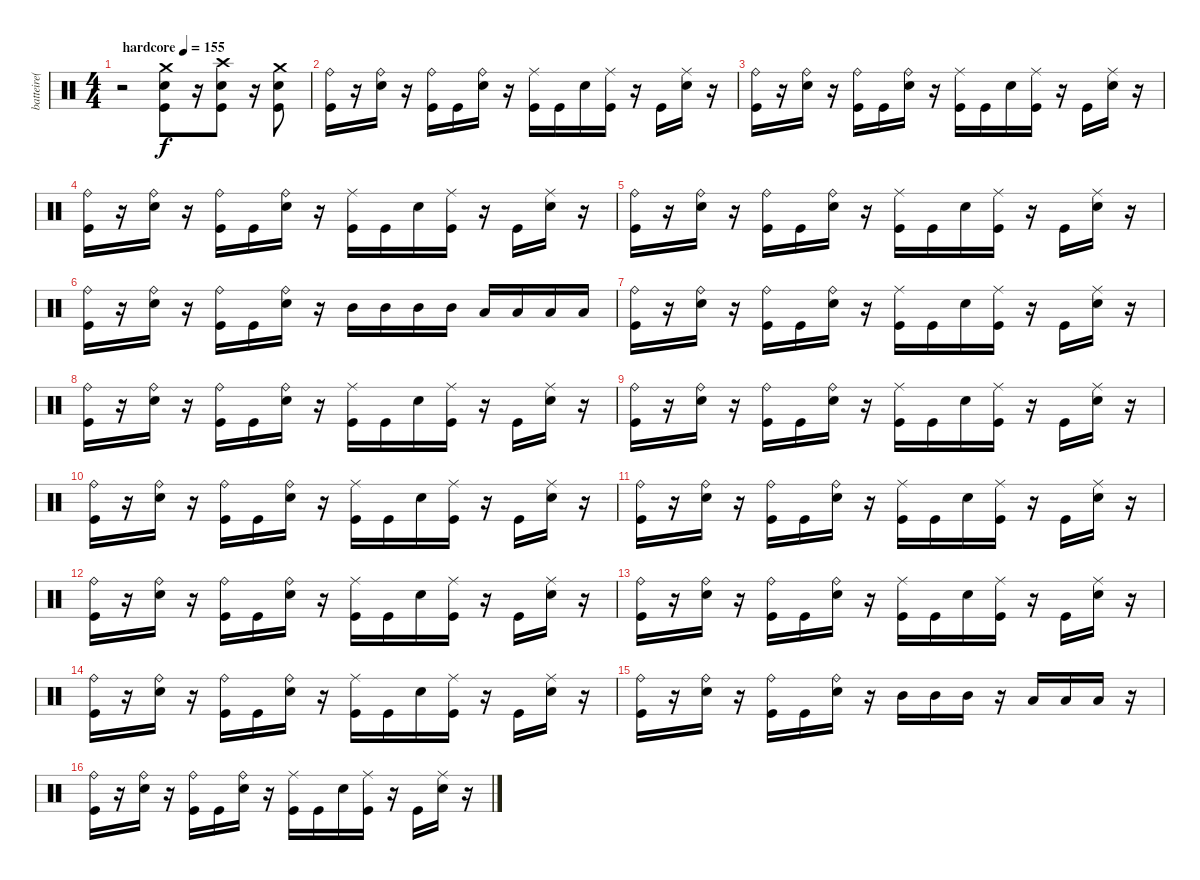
\track ("batteire( Rob ) " "batteire( ") {instrument percussion}
\staff {score}
\articulation defaults
\ts (4 4)
\tempo (155 "hardcore")
\clef neutral
\ks c
r.2{dy f} ("Crash medium (hit)" "Snare (hit) 2" "Kick (hit)").8 r.16 ("Crash high (hit)" "Snare (hit) 2" "Kick (hit)").8 r.16 ("Crash medium (hit)" "Snare (hit) 2" "Kick (hit)").8 |
("Ride (bell)" "Kick (hit)").16 r.16 ("Ride (bell)" "Snare (hit) 2").16 r.16 ("Ride (bell)" "Kick (hit)").16 "Kick (hit)".16 ("Ride (bell)" "Snare (hit) 2").16 r.16 ("Ride (middle)" "Kick (hit)").16 "Kick (hit)".16 "Snare (hit) 2".16 ("Ride (middle)" "Kick (hit)").16 r.16 "Kick (hit)".16 ("Ride (middle)" "Snare (hit) 2").16 r.16 |
("Ride (bell)" "Kick (hit)").16 r.16 ("Ride (bell)" "Snare (hit) 2").16 r.16 ("Ride (bell)" "Kick (hit)").16 "Kick (hit)".16 ("Ride (bell)" "Snare (hit) 2").16 r.16 ("Ride (middle)" "Kick (hit)").16 "Kick (hit)".16 "Snare (hit) 2".16 ("Ride (middle)" "Kick (hit)").16 r.16 "Kick (hit)".16 ("Ride (middle)" "Snare (hit) 2").16 r.16 |
("Ride (bell)" "Kick (hit)").16 r.16 ("Ride (bell)" "Snare (hit) 2").16 r.16 ("Ride (bell)" "Kick (hit)").16 "Kick (hit)".16 ("Ride (bell)" "Snare (hit) 2").16 r.16 ("Ride (middle)" "Kick (hit)").16 "Kick (hit)".16 "Snare (hit) 2".16 ("Ride (middle)" "Kick (hit)").16 r.16 "Kick (hit)".16 ("Ride (middle)" "Snare (hit) 2").16 r.16 |
("Ride (bell)" "Kick (hit)").16 r.16 ("Ride (bell)" "Snare (hit) 2").16 r.16 ("Ride (bell)" "Kick (hit)").16 "Kick (hit)".16 ("Ride (bell)" "Snare (hit) 2").16 r.16 ("Ride (middle)" "Kick (hit)").16 "Kick (hit)".16 "Snare (hit) 2".16 ("Ride (middle)" "Kick (hit)").16 r.16 "Kick (hit)".16 ("Ride (middle)" "Snare (hit) 2").16 r.16 |
("Ride (bell)" "Kick (hit)").16 r.16 ("Ride (bell)" "Snare (hit) 2").16 r.16 ("Ride (bell)" "Kick (hit)").16 "Kick (hit)".16 ("Ride (bell)" "Snare (hit) 2").16 r.16 "Mid Tom (hit)".16 "Mid Tom (hit)".16 "Mid Tom (hit)".16 "Mid Tom (hit)".16 "Low Tom (hit)".16 "Low Tom (hit)".16 "Low Tom (hit)".16 "Low Tom (hit)".16 |
("Ride (bell)" "Kick (hit)").16 r.16 ("Ride (bell)" "Snare (hit) 2").16 r.16 ("Ride (bell)" "Kick (hit)").16 "Kick (hit)".16 ("Ride (bell)" "Snare (hit) 2").16 r.16 ("Ride (middle)" "Kick (hit)").16 "Kick (hit)".16 "Snare (hit) 2".16 ("Ride (middle)" "Kick (hit)").16 r.16 "Kick (hit)".16 ("Ride (middle)" "Snare (hit) 2").16 r.16 |
("Ride (bell)" "Kick (hit)").16 r.16 ("Ride (bell)" "Snare (hit) 2").16 r.16 ("Ride (bell)" "Kick (hit)").16 "Kick (hit)".16 ("Ride (bell)" "Snare (hit) 2").16 r.16 ("Ride (middle)" "Kick (hit)").16 "Kick (hit)".16 "Snare (hit) 2".16 ("Ride (middle)" "Kick (hit)").16 r.16 "Kick (hit)".16 ("Ride (middle)" "Snare (hit) 2").16 r.16 |
("Ride (bell)" "Kick (hit)").16 r.16 ("Ride (bell)" "Snare (hit) 2").16 r.16 ("Ride (bell)" "Kick (hit)").16 "Kick (hit)".16 ("Ride (bell)" "Snare (hit) 2").16 r.16 ("Ride (middle)" "Kick (hit)").16 "Kick (hit)".16 "Snare (hit) 2".16 ("Ride (middle)" "Kick (hit)").16 r.16 "Kick (hit)".16 ("Ride (middle)" "Snare (hit) 2").16 r.16 |
("Ride (bell)" "Kick (hit)").16 r.16 ("Ride (bell)" "Snare (hit) 2").16 r.16 ("Ride (bell)" "Kick (hit)").16 "Kick (hit)".16 ("Ride (bell)" "Snare (hit) 2").16 r.16 ("Ride (middle)" "Kick (hit)").16 "Kick (hit)".16 "Snare (hit) 2".16 ("Ride (middle)" "Kick (hit)").16 r.16 "Kick (hit)".16 ("Ride (middle)" "Snare (hit) 2").16 r.16 |
("Ride (bell)" "Kick (hit)").16 r.16 ("Ride (bell)" "Snare (hit) 2").16 r.16 ("Ride (bell)" "Kick (hit)").16 "Kick (hit)".16 ("Ride (bell)" "Snare (hit) 2").16 r.16 ("Ride (middle)" "Kick (hit)").16 "Kick (hit)".16 "Snare (hit) 2".16 ("Ride (middle)" "Kick (hit)").16 r.16 "Kick (hit)".16 ("Ride (middle)" "Snare (hit) 2").16 r.16 |
("Ride (bell)" "Kick (hit)").16 r.16 ("Ride (bell)" "Snare (hit) 2").16 r.16 ("Ride (bell)" "Kick (hit)").16 "Kick (hit)".16 ("Ride (bell)" "Snare (hit) 2").16 r.16 ("Ride (middle)" "Kick (hit)").16 "Kick (hit)".16 "Snare (hit) 2".16 ("Ride (middle)" "Kick (hit)").16 r.16 "Kick (hit)".16 ("Ride (middle)" "Snare (hit) 2").16 r.16 |
("Ride (bell)" "Kick (hit)").16 r.16 ("Ride (bell)" "Snare (hit) 2").16 r.16 ("Ride (bell)" "Kick (hit)").16 "Kick (hit)".16 ("Ride (bell)" "Snare (hit) 2").16 r.16 ("Ride (middle)" "Kick (hit)").16 "Kick (hit)".16 "Snare (hit) 2".16 ("Ride (middle)" "Kick (hit)").16 r.16 "Kick (hit)".16 ("Ride (middle)" "Snare (hit) 2").16 r.16 |
("Ride (bell)" "Kick (hit)").16 r.16 ("Ride (bell)" "Snare (hit) 2").16 r.16 ("Ride (bell)" "Kick (hit)").16 "Kick (hit)".16 ("Ride (bell)" "Snare (hit) 2").16 r.16 ("Ride (middle)" "Kick (hit)").16 "Kick (hit)".16 "Snare (hit) 2".16 ("Ride (middle)" "Kick (hit)").16 r.16 "Kick (hit)".16 ("Ride (middle)" "Snare (hit) 2").16 r.16 |
("Ride (bell)" "Kick (hit)").16 r.16 ("Ride (bell)" "Snare (hit) 2").16 r.16 ("Ride (bell)" "Kick (hit)").16 "Kick (hit)".16 ("Ride (bell)" "Snare (hit) 2").16 r.16 "Mid Tom (hit)".16 "Mid Tom (hit)".16 "Mid Tom (hit)".16 r.16 "Low Tom (hit)".16 "Low Tom (hit)".16 "Low Tom (hit)".16 r.16 |
("Ride (bell)" "Kick (hit)").16 r.16 ("Ride (bell)" "Snare (hit) 2").16 r.16 ("Ride (bell)" "Kick (hit)").16 "Kick (hit)".16 ("Ride (bell)" "Snare (hit) 2").16 r.16 ("Ride (middle)" "Kick (hit)").16 "Kick (hit)".16 "Snare (hit) 2".16 ("Ride (middle)" "Kick (hit)").16 r.16 "Kick (hit)".16 ("Ride (middle)" "Snare (hit) 2").16 r.16
